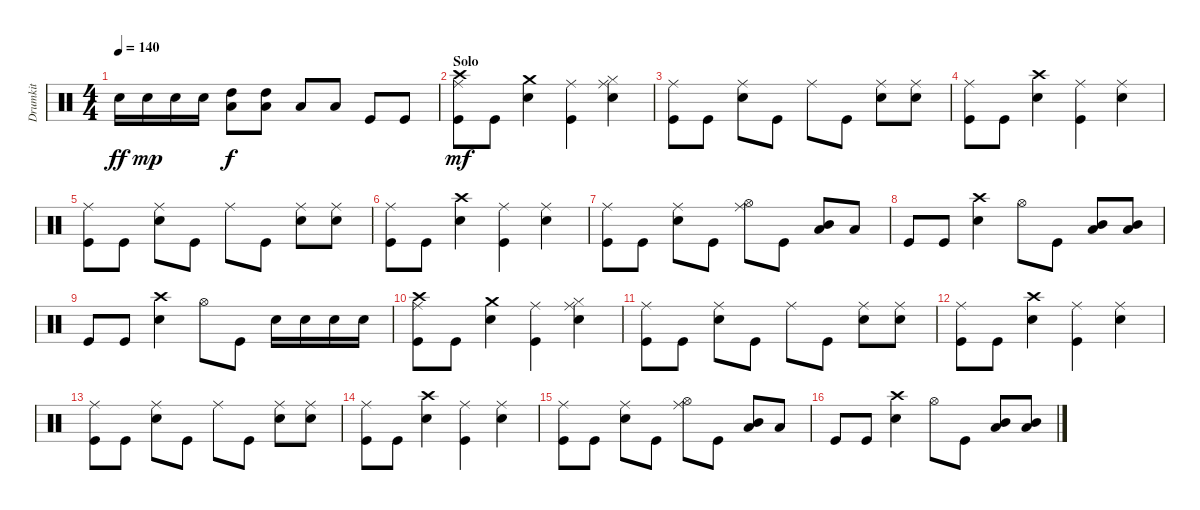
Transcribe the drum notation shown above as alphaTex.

\track ("Drumkit" "Drumkit") {instrument percussion}
\staff {score}
\articulation defaults
\ts (4 4)
\tempo 140
\clef neutral
\ks c "Snare (hit) 2".16{dy ff} "Snare (hit) 2".16{dy mp} "Snare (hit) 2".16 "Snare (hit) 2".16
("High Tom (hit)" "Low Tom (hit)").8{dy f} ("High Tom (hit)" "Low Tom (hit)").8 "Low Tom (hit)".8 "Low Tom (hit)".8 "Kick (hit)".8 "Kick (hit)".8 |
\section ("" "Solo")
("Ride (middle)" "Crash high (hit)" "Kick (hit)").8{dy mf} "Kick (hit)".8 ("Crash medium (hit)" "Snare (hit) 2").4 ("Ride (middle)" "Kick (hit)").4 ("Ride (middle)" "Hi-Hat (closed)" "Snare (hit) 2").4 |
("Ride (middle)" "Kick (hit)").8 "Kick (hit)".8 ("Ride (middle)" "Snare (hit) 2").8 "Kick (hit)".8 "Ride (middle)".8 "Kick (hit)".8 ("Ride (middle)" "Snare (hit) 2").8 ("Ride (middle)" "Snare (hit) 2").8 |
("Ride (middle)" "Kick (hit)").8 "Kick (hit)".8 ("Crash high (hit)" "Snare (hit) 2").4 ("Ride (middle)" "Kick (hit)").4 ("Ride (middle)" "Snare (hit) 2").4 |
("Ride (middle)" "Kick (hit)").8 "Kick (hit)".8 ("Ride (middle)" "Snare (hit) 2").8 "Kick (hit)".8 "Ride (middle)".8 "Kick (hit)".8 ("Ride (middle)" "Snare (hit) 2").8 ("Ride (middle)" "Snare (hit) 2").8 |
("Ride (middle)" "Kick (hit)").8 "Kick (hit)".8 ("Crash high (hit)" "Snare (hit) 2").4 ("Ride (middle)" "Kick (hit)").4 ("Ride (middle)" "Snare (hit) 2").4 |
("Ride (middle)" "Kick (hit)").8 "Kick (hit)".8 ("Ride (middle)" "Snare (hit) 2").8 "Kick (hit)".8 ("Ride (middle)" "Hi-Hat (open)").8 "Kick (hit)".8 ("Mid Tom (hit)" "Low Tom (hit)").8 "Low Tom (hit)".8 |
"Kick (hit)".8 "Kick (hit)".8 ("Crash high (hit)" "Snare (hit) 2").4 "Hi-Hat (open)".8 "Kick (hit)".8 ("Mid Tom (hit)" "Low Tom (hit)").8 ("Mid Tom (hit)" "Low Tom (hit)").8 |
"Kick (hit)".8 "Kick (hit)".8 ("Crash high (hit)" "Snare (hit) 2").4 "Hi-Hat (open)".8 "Kick (hit)".8 "Snare (hit) 2".16 "Snare (hit) 2".16 "Snare (hit) 2".16 "Snare (hit) 2".16 |
("Ride (middle)" "Crash high (hit)" "Kick (hit)").8 "Kick (hit)".8 ("Crash medium (hit)" "Snare (hit) 2").4 ("Ride (middle)" "Kick (hit)").4 ("Ride (middle)" "Hi-Hat (closed)" "Snare (hit) 2").4 |
("Ride (middle)" "Kick (hit)").8 "Kick (hit)".8 ("Ride (middle)" "Snare (hit) 2").8 "Kick (hit)".8 "Ride (middle)".8 "Kick (hit)".8 ("Ride (middle)" "Snare (hit) 2").8 ("Ride (middle)" "Snare (hit) 2").8 |
("Ride (middle)" "Kick (hit)").8 "Kick (hit)".8 ("Crash high (hit)" "Snare (hit) 2").4 ("Ride (middle)" "Kick (hit)").4 ("Ride (middle)" "Snare (hit) 2").4 |
("Ride (middle)" "Kick (hit)").8 "Kick (hit)".8 ("Ride (middle)" "Snare (hit) 2").8 "Kick (hit)".8 "Ride (middle)".8 "Kick (hit)".8 ("Ride (middle)" "Snare (hit) 2").8 ("Ride (middle)" "Snare (hit) 2").8 |
("Ride (middle)" "Kick (hit)").8 "Kick (hit)".8 ("Crash high (hit)" "Snare (hit) 2").4 ("Ride (middle)" "Kick (hit)").4 ("Ride (middle)" "Snare (hit) 2").4 |
("Ride (middle)" "Kick (hit)").8 "Kick (hit)".8 ("Ride (middle)" "Snare (hit) 2").8 "Kick (hit)".8 ("Ride (middle)" "Hi-Hat (open)").8 "Kick (hit)".8 ("Mid Tom (hit)" "Low Tom (hit)").8 "Low Tom (hit)".8 |
"Kick (hit)".8 "Kick (hit)".8 ("Crash high (hit)" "Snare (hit) 2").4 "Hi-Hat (open)".8 "Kick (hit)".8 ("Mid Tom (hit)" "Low Tom (hit)").8 ("Mid Tom (hit)" "Low Tom (hit)").8
